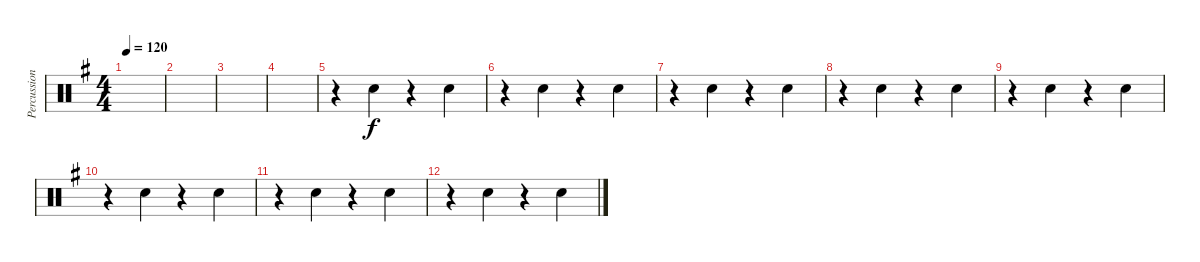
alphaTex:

\track ("Percussion" "Percussion") {instrument percussion}
\staff {score}
\articulation defaults
\ts (4 4)
\tempo 120
\clef neutral
\ks g
|
|
|
|
r.4 "Hand Clap (hit)".4 r.4 "Hand Clap (hit)".4 |
r.4 "Hand Clap (hit)".4 r.4 "Hand Clap (hit)".4 |
r.4 "Hand Clap (hit)".4 r.4 "Hand Clap (hit)".4 |
r.4 "Hand Clap (hit)".4 r.4 "Hand Clap (hit)".4 |
r.4 "Hand Clap (hit)".4 r.4 "Hand Clap (hit)".4 |
r.4 "Hand Clap (hit)".4 r.4 "Hand Clap (hit)".4 |
r.4 "Hand Clap (hit)".4 r.4 "Hand Clap (hit)".4 |
r.4 "Hand Clap (hit)".4 r.4 "Hand Clap (hit)".4
